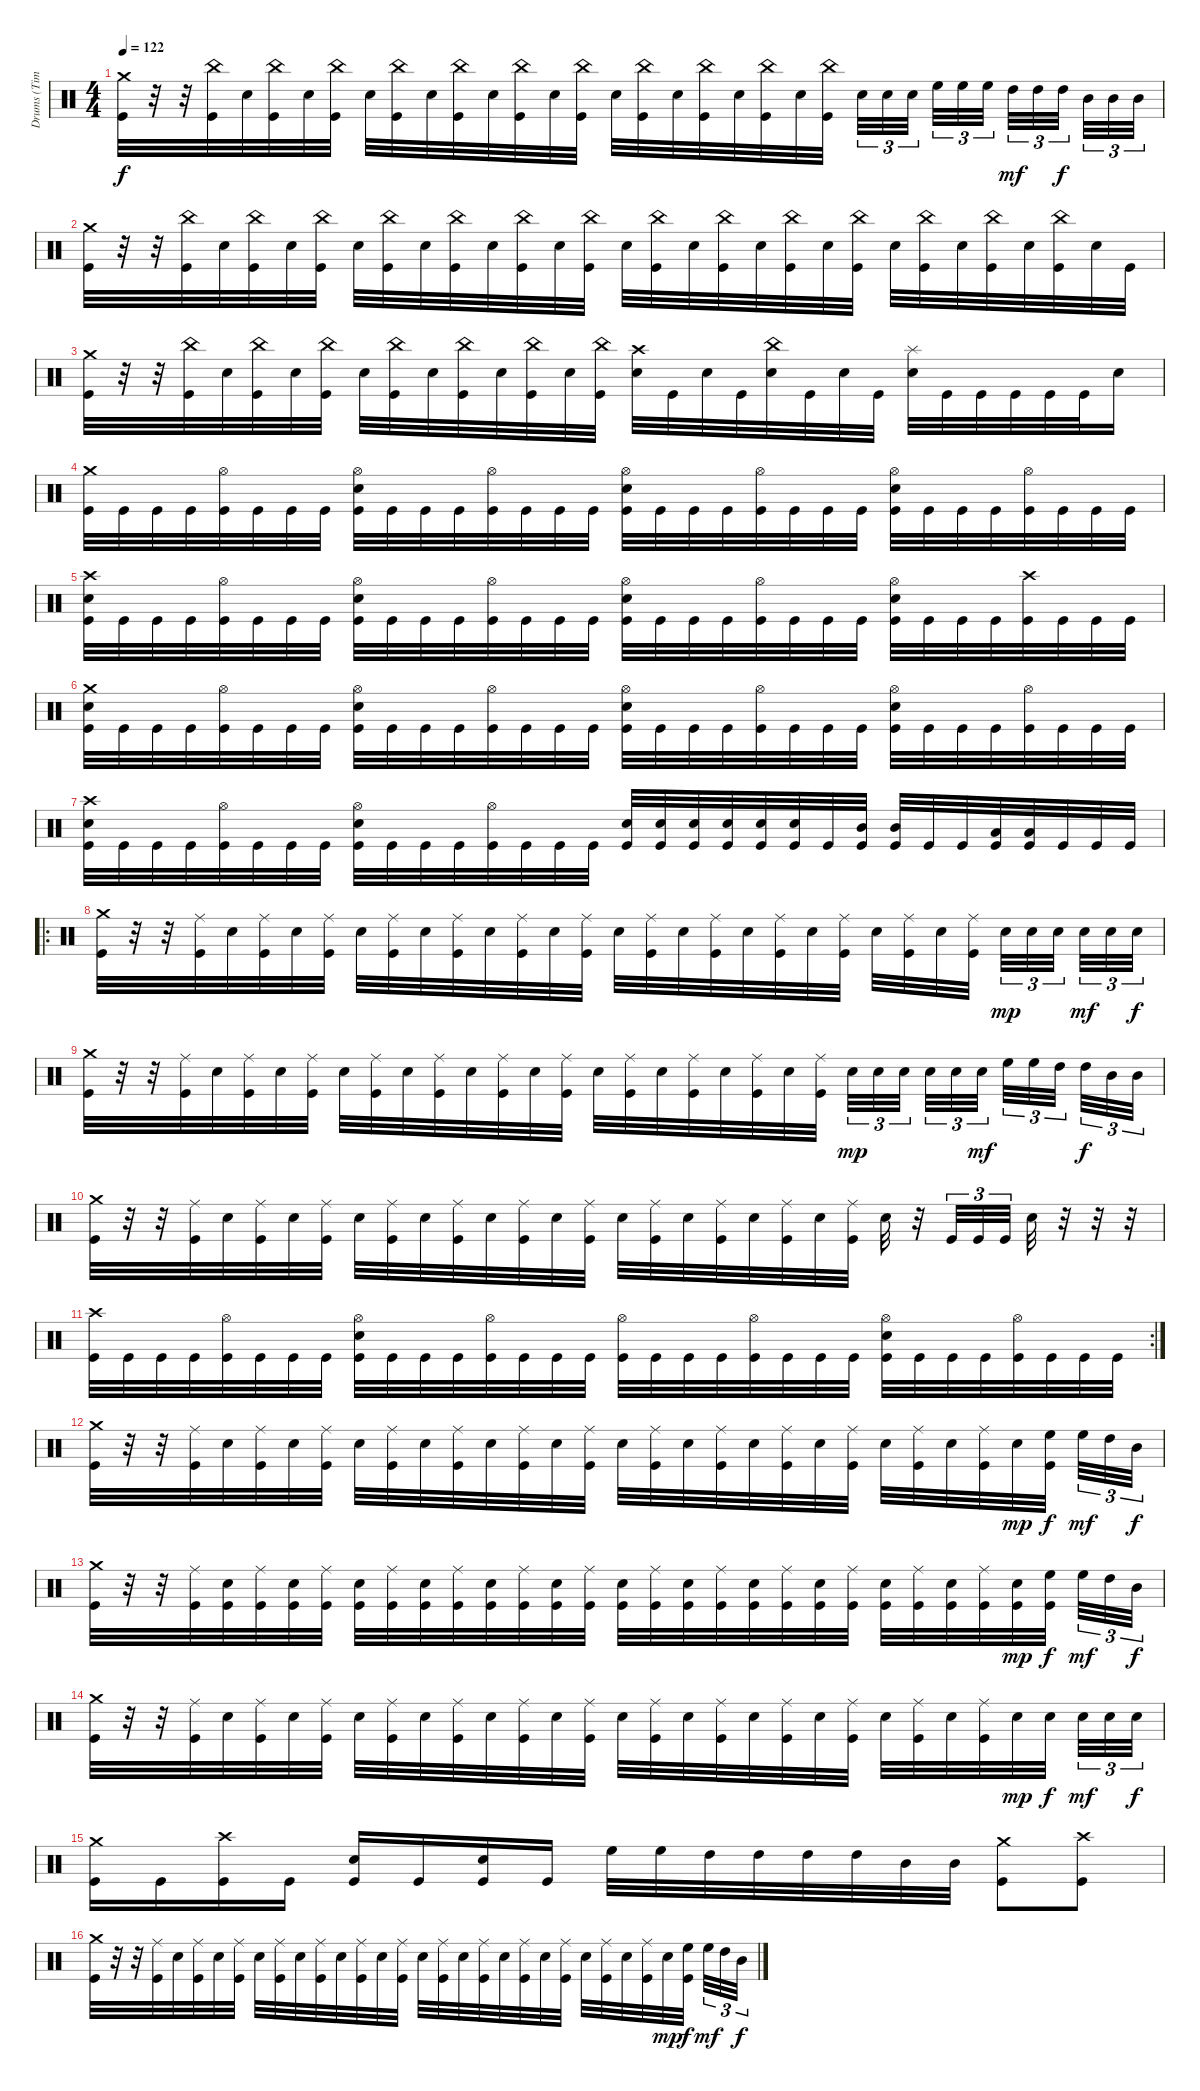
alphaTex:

\track ("Drums (Tim Yeung)" "Drums (Tim") {instrument percussion}
\staff {score}
\articulation defaults
\ts (4 4)
\tempo 122
\clef neutral
\ks c
("Crash medium (hit)" "Kick (hit)").32{dy f} r.32 r.32 ("China (hit)" "Kick (hit)").32 "Electric Snare (hit)".32 ("China (hit)" "Kick (hit)").32 "Electric Snare (hit)".32 ("China (hit)" "Kick (hit)").32 "Electric Snare (hit)".32 ("China (hit)" "Kick (hit)").32 "Electric Snare (hit)".32 ("China (hit)" "Kick (hit)").32 "Electric Snare (hit)".32 ("China (hit)" "Kick (hit)").32 "Electric Snare (hit)".32 ("China (hit)" "Kick (hit)").32 "Electric Snare (hit)".32 ("China (hit)" "Kick (hit)").32 "Electric Snare (hit)".32 ("China (hit)" "Kick (hit)").32 "Electric Snare (hit)".32 ("China (hit)" "Kick (hit)").32 "Electric Snare (hit)".32 ("China (hit)" "Kick (hit)").32 "Electric Snare (hit)".32{tu (3 2)} "Electric Snare (hit)".32{tu (3 2)} "Electric Snare (hit)".32{tu (3 2)} "High Floor Tom (hit)".32{tu (3 2)} "High Floor Tom (hit)".32{tu (3 2)} "High Floor Tom (hit)".32{tu (3 2)} "High Tom (hit)".32{tu (3 2) dy mf} "High Tom (hit)".32{tu (3 2)} "High Tom (hit)".32{tu (3 2) dy f} "Mid Tom (hit)".32{tu (3 2)} "Mid Tom (hit)".32{tu (3 2)} "Mid Tom (hit)".32{tu (3 2)} |
("Crash medium (hit)" "Kick (hit)").32 r.32 r.32 ("China (hit)" "Kick (hit)").32 "Electric Snare (hit)".32 ("China (hit)" "Kick (hit)").32 "Electric Snare (hit)".32 ("China (hit)" "Kick (hit)").32 "Electric Snare (hit)".32 ("China (hit)" "Kick (hit)").32 "Electric Snare (hit)".32 ("China (hit)" "Kick (hit)").32 "Electric Snare (hit)".32 ("China (hit)" "Kick (hit)").32 "Electric Snare (hit)".32 ("China (hit)" "Kick (hit)").32 "Electric Snare (hit)".32 ("China (hit)" "Kick (hit)").32 "Electric Snare (hit)".32 ("China (hit)" "Kick (hit)").32 "Electric Snare (hit)".32 ("China (hit)" "Kick (hit)").32 "Electric Snare (hit)".32 ("China (hit)" "Kick (hit)").32 "Electric Snare (hit)".32 ("China (hit)" "Kick (hit)").32 "Electric Snare (hit)".32 ("China (hit)" "Kick (hit)").32 "Electric Snare (hit)".32 ("China (hit)" "Kick (hit)").32 "Electric Snare (hit)".32 "Kick (hit)".32 |
("Crash medium (hit)" "Kick (hit)").32 r.32 r.32 ("China (hit)" "Kick (hit)").32 "Electric Snare (hit)".32 ("China (hit)" "Kick (hit)").32 "Electric Snare (hit)".32 ("China (hit)" "Kick (hit)").32 "Electric Snare (hit)".32 ("China (hit)" "Kick (hit)").32 "Electric Snare (hit)".32 ("China (hit)" "Kick (hit)").32 "Electric Snare (hit)".32 ("China (hit)" "Kick (hit)").32 "Electric Snare (hit)".32 ("China (hit)" "Kick (hit)").32 ("Crash high (hit)" "Electric Snare (hit)").32 "Kick (hit)".32 "Electric Snare (hit)".32 "Kick (hit)".32 ("China (hit)" "Electric Snare (hit)").32 "Kick (hit)".32 "Electric Snare (hit)".32 "Kick (hit)".32 ("Splash (hit)" "Electric Snare (hit)").32 "Kick (hit)".32 "Kick (hit)".32 "Kick (hit)".32 "Kick (hit)".32 "Kick (hit)".32 "Electric Snare (hit)".16 |
("Crash medium (hit)" "Kick (hit)").32 "Kick (hit)".32 "Kick (hit)".32 "Kick (hit)".32 ("Hi-Hat (open)" "Kick (hit)").32 "Kick (hit)".32 "Kick (hit)".32 "Kick (hit)".32 ("Hi-Hat (open)" "Electric Snare (hit)" "Kick (hit)").32 "Kick (hit)".32 "Kick (hit)".32 "Kick (hit)".32 ("Hi-Hat (open)" "Kick (hit)").32 "Kick (hit)".32 "Kick (hit)".32 "Kick (hit)".32 ("Hi-Hat (open)" "Electric Snare (hit)" "Kick (hit)").32 "Kick (hit)".32 "Kick (hit)".32 "Kick (hit)".32 ("Hi-Hat (open)" "Kick (hit)").32 "Kick (hit)".32 "Kick (hit)".32 "Kick (hit)".32 ("Hi-Hat (open)" "Electric Snare (hit)" "Kick (hit)").32 "Kick (hit)".32 "Kick (hit)".32 "Kick (hit)".32 ("Hi-Hat (open)" "Kick (hit)").32 "Kick (hit)".32 "Kick (hit)".32 "Kick (hit)".32 |
("Crash high (hit)" "Electric Snare (hit)" "Kick (hit)").32 "Kick (hit)".32 "Kick (hit)".32 "Kick (hit)".32 ("Hi-Hat (open)" "Kick (hit)").32 "Kick (hit)".32 "Kick (hit)".32 "Kick (hit)".32 ("Hi-Hat (open)" "Electric Snare (hit)" "Kick (hit)").32 "Kick (hit)".32 "Kick (hit)".32 "Kick (hit)".32 ("Hi-Hat (open)" "Kick (hit)").32 "Kick (hit)".32 "Kick (hit)".32 "Kick (hit)".32 ("Hi-Hat (open)" "Electric Snare (hit)" "Kick (hit)").32 "Kick (hit)".32 "Kick (hit)".32 "Kick (hit)".32 ("Hi-Hat (open)" "Kick (hit)").32 "Kick (hit)".32 "Kick (hit)".32 "Kick (hit)".32 ("Hi-Hat (open)" "Electric Snare (hit)" "Kick (hit)").32 "Kick (hit)".32 "Kick (hit)".32 "Kick (hit)".32 ("Crash high (hit)" "Kick (hit)").32 "Kick (hit)".32 "Kick (hit)".32 "Kick (hit)".32 |
("Crash medium (hit)" "Electric Snare (hit)" "Kick (hit)").32 "Kick (hit)".32 "Kick (hit)".32 "Kick (hit)".32 ("Hi-Hat (open)" "Kick (hit)").32 "Kick (hit)".32 "Kick (hit)".32 "Kick (hit)".32 ("Hi-Hat (open)" "Electric Snare (hit)" "Kick (hit)").32 "Kick (hit)".32 "Kick (hit)".32 "Kick (hit)".32 ("Hi-Hat (open)" "Kick (hit)").32 "Kick (hit)".32 "Kick (hit)".32 "Kick (hit)".32 ("Hi-Hat (open)" "Electric Snare (hit)" "Kick (hit)").32 "Kick (hit)".32 "Kick (hit)".32 "Kick (hit)".32 ("Hi-Hat (open)" "Kick (hit)").32 "Kick (hit)".32 "Kick (hit)".32 "Kick (hit)".32 ("Hi-Hat (open)" "Electric Snare (hit)" "Kick (hit)").32 "Kick (hit)".32 "Kick (hit)".32 "Kick (hit)".32 ("Hi-Hat (open)" "Kick (hit)").32 "Kick (hit)".32 "Kick (hit)".32 "Kick (hit)".32 |
("Crash high (hit)" "Electric Snare (hit)" "Kick (hit)").32 "Kick (hit)".32 "Kick (hit)".32 "Kick (hit)".32 ("Hi-Hat (open)" "Kick (hit)").32 "Kick (hit)".32 "Kick (hit)".32 "Kick (hit)".32 ("Hi-Hat (open)" "Electric Snare (hit)" "Kick (hit)").32 "Kick (hit)".32 "Kick (hit)".32 "Kick (hit)".32 ("Hi-Hat (open)" "Kick (hit)").32 "Kick (hit)".32 "Kick (hit)".32 "Kick (hit)".32 ("Electric Snare (hit)" "Kick (hit)").32 ("Electric Snare (hit)" "Kick (hit)").32 ("Electric Snare (hit)" "Kick (hit)").32 ("Electric Snare (hit)" "Kick (hit)").32 ("Electric Snare (hit)" "Kick (hit)").32 ("Electric Snare (hit)" "Kick (hit)").32 "Kick (hit)".32 ("Mid Tom (hit)" "Kick (hit)").32 ("Mid Tom (hit)" "Kick (hit)").32 "Kick (hit)".32 "Kick (hit)".32 ("Low Tom (hit)" "Kick (hit)").32 ("Low Tom (hit)" "Kick (hit)").32 "Kick (hit)".32 "Kick (hit)".32 "Kick (hit)".32 |
\ro
("Crash medium (hit)" "Kick (hit)").32 r.32 r.32 ("Ride (middle)" "Kick (hit)").32 "Electric Snare (hit)".32 ("Ride (middle)" "Kick (hit)").32 "Electric Snare (hit)".32 ("Ride (middle)" "Kick (hit)").32 "Electric Snare (hit)".32 ("Ride (middle)" "Kick (hit)").32 "Electric Snare (hit)".32 ("Ride (middle)" "Kick (hit)").32 "Electric Snare (hit)".32 ("Ride (middle)" "Kick (hit)").32 "Electric Snare (hit)".32 ("Ride (middle)" "Kick (hit)").32 "Electric Snare (hit)".32 ("Ride (middle)" "Kick (hit)").32 "Electric Snare (hit)".32 ("Ride (middle)" "Kick (hit)").32 "Electric Snare (hit)".32 ("Ride (middle)" "Kick (hit)").32 "Electric Snare (hit)".32 ("Ride (middle)" "Kick (hit)").32 "Electric Snare (hit)".32 ("Ride (middle)" "Kick (hit)").32 "Electric Snare (hit)".32 ("Ride (middle)" "Kick (hit)").32 "Electric Snare (hit)".32{tu (3 2) dy mp} "Electric Snare (hit)".32{tu (3 2)} "Electric Snare (hit)".32{tu (3 2)} "Electric Snare (hit)".32{tu (3 2) dy mf} "Electric Snare (hit)".32{tu (3 2)} "Electric Snare (hit)".32{tu (3 2) dy f} |
("Crash medium (hit)" "Kick (hit)").32 r.32 r.32 ("Ride (middle)" "Kick (hit)").32 "Electric Snare (hit)".32 ("Ride (middle)" "Kick (hit)").32 "Electric Snare (hit)".32 ("Ride (middle)" "Kick (hit)").32 "Electric Snare (hit)".32 ("Ride (middle)" "Kick (hit)").32 "Electric Snare (hit)".32 ("Ride (middle)" "Kick (hit)").32 "Electric Snare (hit)".32 ("Ride (middle)" "Kick (hit)").32 "Electric Snare (hit)".32 ("Ride (middle)" "Kick (hit)").32 "Electric Snare (hit)".32 ("Ride (middle)" "Kick (hit)").32 "Electric Snare (hit)".32 ("Ride (middle)" "Kick (hit)").32 "Electric Snare (hit)".32 ("Ride (middle)" "Kick (hit)").32 "Electric Snare (hit)".32 ("Ride (middle)" "Kick (hit)").32 "Electric Snare (hit)".32{tu (3 2) dy mp} "Electric Snare (hit)".32{tu (3 2)} "Electric Snare (hit)".32{tu (3 2)} "Electric Snare (hit)".32{tu (3 2)} "Electric Snare (hit)".32{tu (3 2)} "Electric Snare (hit)".32{tu (3 2) dy mf} "High Floor Tom (hit)".32{tu (3 2)} "High Floor Tom (hit)".32{tu (3 2)} "High Tom (hit)".32{tu (3 2)} "High Tom (hit)".32{tu (3 2) dy f} "Mid Tom (hit)".32{tu (3 2)} "Mid Tom (hit)".32{tu (3 2)} |
("Crash medium (hit)" "Kick (hit)").32 r.32 r.32 ("Ride (middle)" "Kick (hit)").32 "Electric Snare (hit)".32 ("Ride (middle)" "Kick (hit)").32 "Electric Snare (hit)".32 ("Ride (middle)" "Kick (hit)").32 "Electric Snare (hit)".32 ("Ride (middle)" "Kick (hit)").32 "Electric Snare (hit)".32 ("Ride (middle)" "Kick (hit)").32 "Electric Snare (hit)".32 ("Ride (middle)" "Kick (hit)").32 "Electric Snare (hit)".32 ("Ride (middle)" "Kick (hit)").32 "Electric Snare (hit)".32 ("Ride (middle)" "Kick (hit)").32 "Electric Snare (hit)".32 ("Ride (middle)" "Kick (hit)").32 "Electric Snare (hit)".32 ("Ride (middle)" "Kick (hit)").32 "Electric Snare (hit)".32 ("Ride (middle)" "Kick (hit)").32 "Electric Snare (hit)".32 r.32 "Kick (hit)".32{tu (3 2)} "Kick (hit)".32{tu (3 2)} "Kick (hit)".32{tu (3 2)} "Electric Snare (hit)".32 r.32 r.32 r.32 |
\rc 2
("Crash high (hit)" "Kick (hit)").32 "Kick (hit)".32 "Kick (hit)".32 "Kick (hit)".32 ("Hi-Hat (open)" "Kick (hit)").32 "Kick (hit)".32 "Kick (hit)".32 "Kick (hit)".32 ("Hi-Hat (open)" "Electric Snare (hit)" "Kick (hit)").32 "Kick (hit)".32 "Kick (hit)".32 "Kick (hit)".32 ("Hi-Hat (open)" "Kick (hit)").32 "Kick (hit)".32 "Kick (hit)".32 "Kick (hit)".32 ("Hi-Hat (open)" "Kick (hit)").32 "Kick (hit)".32 "Kick (hit)".32 "Kick (hit)".32 ("Hi-Hat (open)" "Kick (hit)").32 "Kick (hit)".32 "Kick (hit)".32 "Kick (hit)".32 ("Hi-Hat (open)" "Electric Snare (hit)" "Kick (hit)").32 "Kick (hit)".32 "Kick (hit)".32 "Kick (hit)".32 ("Hi-Hat (open)" "Kick (hit)").32 "Kick (hit)".32 "Kick (hit)".32 "Kick (hit)".32 |
("Crash medium (hit)" "Kick (hit)").32 r.32 r.32 ("Ride (middle)" "Kick (hit)").32 "Electric Snare (hit)".32 ("Ride (middle)" "Kick (hit)").32 "Electric Snare (hit)".32 ("Ride (middle)" "Kick (hit)").32 "Electric Snare (hit)".32 ("Ride (middle)" "Kick (hit)").32 "Electric Snare (hit)".32 ("Ride (middle)" "Kick (hit)").32 "Electric Snare (hit)".32 ("Ride (middle)" "Kick (hit)").32 "Electric Snare (hit)".32 ("Ride (middle)" "Kick (hit)").32 "Electric Snare (hit)".32 ("Ride (middle)" "Kick (hit)").32 "Electric Snare (hit)".32 ("Ride (middle)" "Kick (hit)").32 "Electric Snare (hit)".32 ("Ride (middle)" "Kick (hit)").32 "Electric Snare (hit)".32 ("Ride (middle)" "Kick (hit)").32 "Electric Snare (hit)".32 ("Ride (middle)" "Kick (hit)").32 "Electric Snare (hit)".32 ("Ride (middle)" "Kick (hit)").32 "Electric Snare (hit)".32{dy mp} ("High Floor Tom (hit)" "Kick (hit)").32{dy f} "High Floor Tom (hit)".32{tu (3 2) dy mf} "High Tom (hit)".32{tu (3 2)} "Mid Tom (hit)".32{tu (3 2) dy f} |
("Crash medium (hit)" "Kick (hit)").32 r.32 r.32 ("Ride (middle)" "Kick (hit)").32 ("Electric Snare (hit)" "Kick (hit)").32 ("Ride (middle)" "Kick (hit)").32 ("Electric Snare (hit)" "Kick (hit)").32 ("Ride (middle)" "Kick (hit)").32 ("Electric Snare (hit)" "Kick (hit)").32 ("Ride (middle)" "Kick (hit)").32 ("Electric Snare (hit)" "Kick (hit)").32 ("Ride (middle)" "Kick (hit)").32 ("Electric Snare (hit)" "Kick (hit)").32 ("Ride (middle)" "Kick (hit)").32 ("Electric Snare (hit)" "Kick (hit)").32 ("Ride (middle)" "Kick (hit)").32 ("Electric Snare (hit)" "Kick (hit)").32 ("Ride (middle)" "Kick (hit)").32 ("Electric Snare (hit)" "Kick (hit)").32 ("Ride (middle)" "Kick (hit)").32 ("Electric Snare (hit)" "Kick (hit)").32 ("Ride (middle)" "Kick (hit)").32 ("Electric Snare (hit)" "Kick (hit)").32 ("Ride (middle)" "Kick (hit)").32 ("Electric Snare (hit)" "Kick (hit)").32 ("Ride (middle)" "Kick (hit)").32 ("Electric Snare (hit)" "Kick (hit)").32 ("Ride (middle)" "Kick (hit)").32 ("Electric Snare (hit)" "Kick (hit)").32{dy mp} ("High Floor Tom (hit)" "Kick (hit)").32{dy f} "High Floor Tom (hit)".32{tu (3 2) dy mf} "High Tom (hit)".32{tu (3 2)} "Mid Tom (hit)".32{tu (3 2) dy f} |
("Crash medium (hit)" "Kick (hit)").32 r.32 r.32 ("Ride (middle)" "Kick (hit)").32 "Electric Snare (hit)".32 ("Ride (middle)" "Kick (hit)").32 "Electric Snare (hit)".32 ("Ride (middle)" "Kick (hit)").32 "Electric Snare (hit)".32 ("Ride (middle)" "Kick (hit)").32 "Electric Snare (hit)".32 ("Ride (middle)" "Kick (hit)").32 "Electric Snare (hit)".32 ("Ride (middle)" "Kick (hit)").32 "Electric Snare (hit)".32 ("Ride (middle)" "Kick (hit)").32 "Electric Snare (hit)".32 ("Ride (middle)" "Kick (hit)").32 "Electric Snare (hit)".32 ("Ride (middle)" "Kick (hit)").32 "Electric Snare (hit)".32 ("Ride (middle)" "Kick (hit)").32 "Electric Snare (hit)".32 ("Ride (middle)" "Kick (hit)").32 "Electric Snare (hit)".32 ("Ride (middle)" "Kick (hit)").32 "Electric Snare (hit)".32 ("Ride (middle)" "Kick (hit)").32 "Electric Snare (hit)".32{dy mp} "Electric Snare (hit)".32{dy f} "Electric Snare (hit)".32{tu (3 2) dy mf} "Electric Snare (hit)".32{tu (3 2)} "Electric Snare (hit)".32{tu (3 2) dy f} |
("Crash medium (hit)" "Kick (hit)").16 "Kick (hit)".16 ("Crash high (hit)" "Kick (hit)").16 "Kick (hit)".16 ("Electric Snare (hit)" "Kick (hit)").16 "Kick (hit)".16 ("Electric Snare (hit)" "Kick (hit)").16 "Kick (hit)".16 "High Floor Tom (hit)".32 "High Floor Tom (hit)".32 "High Tom (hit)".32 "High Tom (hit)".32 "High Tom (hit)".32 "High Tom (hit)".32 "Mid Tom (hit)".32 "Mid Tom (hit)".32 ("Crash medium (hit)" "Kick (hit)").8 ("Crash high (hit)" "Kick (hit)").8 |
("Crash medium (hit)" "Kick (hit)").32 r.32 r.32 ("Ride (middle)" "Kick (hit)").32 "Electric Snare (hit)".32 ("Ride (middle)" "Kick (hit)").32 "Electric Snare (hit)".32 ("Ride (middle)" "Kick (hit)").32 "Electric Snare (hit)".32 ("Ride (middle)" "Kick (hit)").32 "Electric Snare (hit)".32 ("Ride (middle)" "Kick (hit)").32 "Electric Snare (hit)".32 ("Ride (middle)" "Kick (hit)").32 "Electric Snare (hit)".32 ("Ride (middle)" "Kick (hit)").32 "Electric Snare (hit)".32 ("Ride (middle)" "Kick (hit)").32 "Electric Snare (hit)".32 ("Ride (middle)" "Kick (hit)").32 "Electric Snare (hit)".32 ("Ride (middle)" "Kick (hit)").32 "Electric Snare (hit)".32 ("Ride (middle)" "Kick (hit)").32 "Electric Snare (hit)".32 ("Ride (middle)" "Kick (hit)").32 "Electric Snare (hit)".32 ("Ride (middle)" "Kick (hit)").32 "Electric Snare (hit)".32{dy mp} ("High Floor Tom (hit)" "Kick (hit)").32{dy f} "High Floor Tom (hit)".32{tu (3 2) dy mf} "High Tom (hit)".32{tu (3 2)} "Mid Tom (hit)".32{tu (3 2) dy f}
